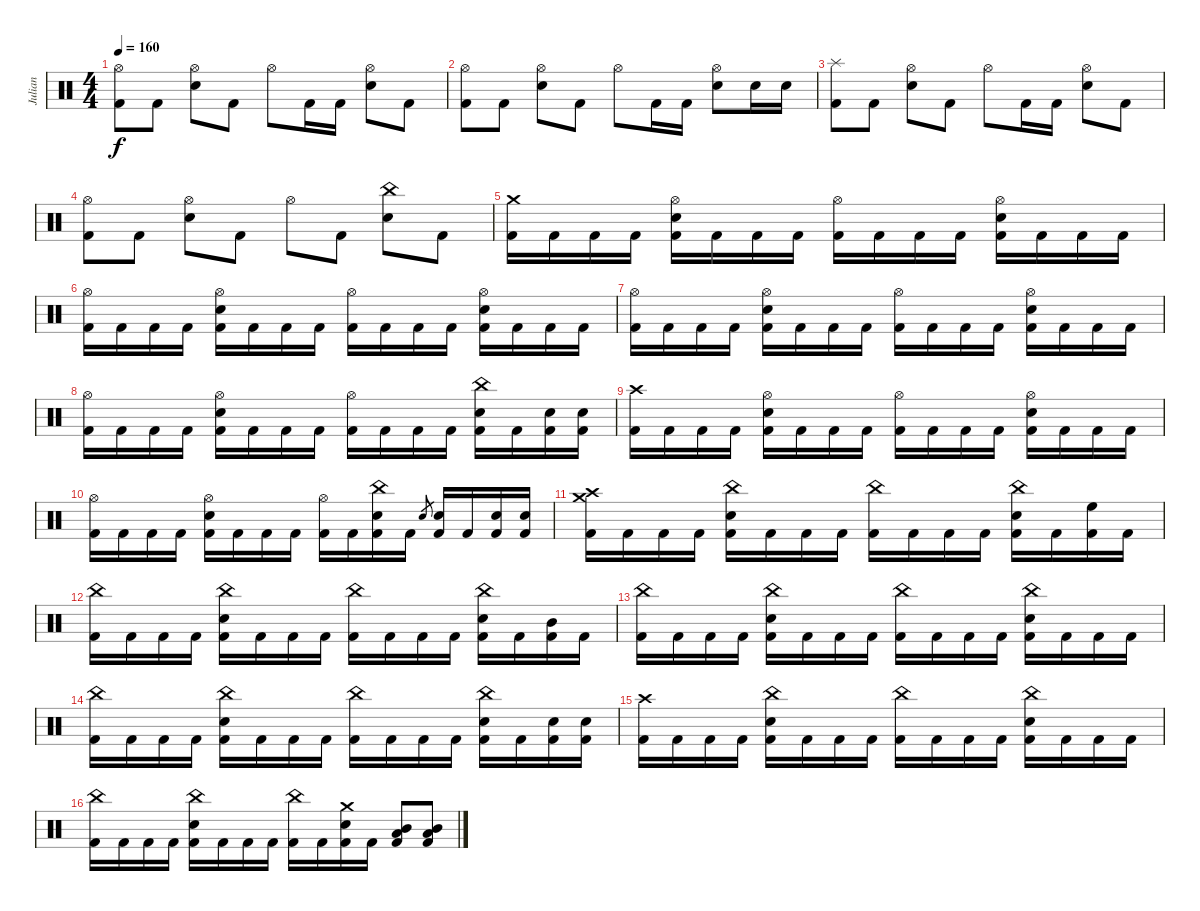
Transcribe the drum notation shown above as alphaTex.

\track ("Julian" "Julian") {instrument percussion}
\staff {score}
\articulation defaults
\ts (4 4)
\tempo 160
\clef neutral
\ks c
("Hi-Hat (open)" "Kick (hit) 2").8{dy f} "Kick (hit) 2".8 ("Hi-Hat (open)" "Electric Snare (hit)").8 "Kick (hit) 2".8 "Hi-Hat (open)".8 "Kick (hit) 2".16 "Kick (hit) 2".16 ("Hi-Hat (open)" "Electric Snare (hit)").8 "Kick (hit) 2".8 |
("Hi-Hat (open)" "Kick (hit) 2").8 "Kick (hit) 2".8 ("Hi-Hat (open)" "Electric Snare (hit)").8 "Kick (hit) 2".8 "Hi-Hat (open)".8 "Kick (hit) 2".16 "Kick (hit) 2".16 ("Hi-Hat (open)" "Electric Snare (hit)").8 "Electric Snare (hit)".16 "Electric Snare (hit)".16 |
("Splash (hit)" "Kick (hit) 2").8 "Kick (hit) 2".8 ("Hi-Hat (open)" "Electric Snare (hit)").8 "Kick (hit) 2".8 "Hi-Hat (open)".8 "Kick (hit) 2".16 "Kick (hit) 2".16 ("Hi-Hat (open)" "Electric Snare (hit)").8 "Kick (hit) 2".8 |
("Hi-Hat (open)" "Kick (hit) 2").8 "Kick (hit) 2".8 ("Hi-Hat (open)" "Electric Snare (hit)").8 "Kick (hit) 2".8 "Hi-Hat (open)".8 "Kick (hit) 2".8 ("China (hit)" "Electric Snare (hit)").8 "Kick (hit) 2".8 |
("Crash medium (hit)" "Kick (hit) 2").16 "Kick (hit) 2".16 "Kick (hit) 2".16 "Kick (hit) 2".16 ("Hi-Hat (open)" "Electric Snare (hit)" "Kick (hit) 2").16 "Kick (hit) 2".16 "Kick (hit) 2".16 "Kick (hit) 2".16 ("Hi-Hat (open)" "Kick (hit) 2").16 "Kick (hit) 2".16 "Kick (hit) 2".16 "Kick (hit) 2".16 ("Hi-Hat (open)" "Electric Snare (hit)" "Kick (hit) 2").16 "Kick (hit) 2".16 "Kick (hit) 2".16 "Kick (hit) 2".16 |
("Hi-Hat (open)" "Kick (hit) 2").16 "Kick (hit) 2".16 "Kick (hit) 2".16 "Kick (hit) 2".16 ("Hi-Hat (open)" "Electric Snare (hit)" "Kick (hit) 2").16 "Kick (hit) 2".16 "Kick (hit) 2".16 "Kick (hit) 2".16 ("Hi-Hat (open)" "Kick (hit) 2").16 "Kick (hit) 2".16 "Kick (hit) 2".16 "Kick (hit) 2".16 ("Hi-Hat (open)" "Electric Snare (hit)" "Kick (hit) 2").16 "Kick (hit) 2".16 "Kick (hit) 2".16 "Kick (hit) 2".16 |
("Hi-Hat (open)" "Kick (hit) 2").16 "Kick (hit) 2".16 "Kick (hit) 2".16 "Kick (hit) 2".16 ("Hi-Hat (open)" "Electric Snare (hit)" "Kick (hit) 2").16 "Kick (hit) 2".16 "Kick (hit) 2".16 "Kick (hit) 2".16 ("Hi-Hat (open)" "Kick (hit) 2").16 "Kick (hit) 2".16 "Kick (hit) 2".16 "Kick (hit) 2".16 ("Hi-Hat (open)" "Electric Snare (hit)" "Kick (hit) 2").16 "Kick (hit) 2".16 "Kick (hit) 2".16 "Kick (hit) 2".16 |
("Hi-Hat (open)" "Kick (hit) 2").16 "Kick (hit) 2".16 "Kick (hit) 2".16 "Kick (hit) 2".16 ("Hi-Hat (open)" "Electric Snare (hit)" "Kick (hit) 2").16 "Kick (hit) 2".16 "Kick (hit) 2".16 "Kick (hit) 2".16 ("Hi-Hat (open)" "Kick (hit) 2").16 "Kick (hit) 2".16 "Kick (hit) 2".16 "Kick (hit) 2".16 ("China (hit)" "Electric Snare (hit)" "Kick (hit) 2").16 "Kick (hit) 2".16 ("Electric Snare (hit)" "Kick (hit) 2").16 ("Electric Snare (hit)" "Kick (hit) 2").16 |
("Crash high (hit)" "Kick (hit) 2").16 "Kick (hit) 2".16 "Kick (hit) 2".16 "Kick (hit) 2".16 ("Hi-Hat (open)" "Electric Snare (hit)" "Kick (hit) 2").16 "Kick (hit) 2".16 "Kick (hit) 2".16 "Kick (hit) 2".16 ("Hi-Hat (open)" "Kick (hit) 2").16 "Kick (hit) 2".16 "Kick (hit) 2".16 "Kick (hit) 2".16 ("Hi-Hat (open)" "Electric Snare (hit)" "Kick (hit) 2").16 "Kick (hit) 2".16 "Kick (hit) 2".16 "Kick (hit) 2".16 |
("Hi-Hat (open)" "Kick (hit) 2").16 "Kick (hit) 2".16 "Kick (hit) 2".16 "Kick (hit) 2".16 ("Hi-Hat (open)" "Electric Snare (hit)" "Kick (hit) 2").16 "Kick (hit) 2".16 "Kick (hit) 2".16 "Kick (hit) 2".16 ("Hi-Hat (open)" "Kick (hit) 2").16 "Kick (hit) 2".16 ("China (hit)" "Electric Snare (hit)" "Kick (hit) 2").16 "Kick (hit) 2".16 "Electric Snare (hit)".8{gr} ("Electric Snare (hit)" "Kick (hit) 2").16 "Kick (hit) 2".16 ("Electric Snare (hit)" "Kick (hit) 2").16 ("Electric Snare (hit)" "Kick (hit) 2").16 |
("Crash high (hit)" "Crash medium (hit)" "Kick (hit) 2").16 "Kick (hit) 2".16 "Kick (hit) 2".16 "Kick (hit) 2".16 ("China (hit)" "Electric Snare (hit)" "Kick (hit) 2").16 "Kick (hit) 2".16 "Kick (hit) 2".16 "Kick (hit) 2".16 ("China (hit)" "Kick (hit) 2").16 "Kick (hit) 2".16 "Kick (hit) 2".16 "Kick (hit) 2".16 ("China (hit)" "Electric Snare (hit)" "Kick (hit) 2").16 "Kick (hit) 2".16 ("High Floor Tom (hit)" "Kick (hit) 2").16 "Kick (hit) 2".16 |
("China (hit)" "Kick (hit) 2").16 "Kick (hit) 2".16 "Kick (hit) 2".16 "Kick (hit) 2".16 ("China (hit)" "Electric Snare (hit)" "Kick (hit) 2").16 "Kick (hit) 2".16 "Kick (hit) 2".16 "Kick (hit) 2".16 ("China (hit)" "Kick (hit) 2").16 "Kick (hit) 2".16 "Kick (hit) 2".16 "Kick (hit) 2".16 ("China (hit)" "Electric Snare (hit)" "Kick (hit) 2").16 "Kick (hit) 2".16 ("Mid Tom (hit)" "Kick (hit) 2").16 "Kick (hit) 2".16 |
("China (hit)" "Kick (hit) 2").16 "Kick (hit) 2".16 "Kick (hit) 2".16 "Kick (hit) 2".16 ("China (hit)" "Electric Snare (hit)" "Kick (hit) 2").16 "Kick (hit) 2".16 "Kick (hit) 2".16 "Kick (hit) 2".16 ("China (hit)" "Kick (hit) 2").16 "Kick (hit) 2".16 "Kick (hit) 2".16 "Kick (hit) 2".16 ("China (hit)" "Electric Snare (hit)" "Kick (hit) 2").16 "Kick (hit) 2".16 "Kick (hit) 2".16 "Kick (hit) 2".16 |
("China (hit)" "Kick (hit) 2").16 "Kick (hit) 2".16 "Kick (hit) 2".16 "Kick (hit) 2".16 ("China (hit)" "Electric Snare (hit)" "Kick (hit) 2").16 "Kick (hit) 2".16 "Kick (hit) 2".16 "Kick (hit) 2".16 ("China (hit)" "Kick (hit) 2").16 "Kick (hit) 2".16 "Kick (hit) 2".16 "Kick (hit) 2".16 ("China (hit)" "Electric Snare (hit)" "Kick (hit) 2").16 "Kick (hit) 2".16 ("Electric Snare (hit)" "Kick (hit) 2").16 ("Electric Snare (hit)" "Kick (hit) 2").16 |
("Crash high (hit)" "Kick (hit) 2").16 "Kick (hit) 2".16 "Kick (hit) 2".16 "Kick (hit) 2".16 ("China (hit)" "Electric Snare (hit)" "Kick (hit) 2").16 "Kick (hit) 2".16 "Kick (hit) 2".16 "Kick (hit) 2".16 ("China (hit)" "Kick (hit) 2").16 "Kick (hit) 2".16 "Kick (hit) 2".16 "Kick (hit) 2".16 ("China (hit)" "Electric Snare (hit)" "Kick (hit) 2").16 "Kick (hit) 2".16 "Kick (hit) 2".16 "Kick (hit) 2".16 |
("China (hit)" "Kick (hit) 2").16 "Kick (hit) 2".16 "Kick (hit) 2".16 "Kick (hit) 2".16 ("China (hit)" "Electric Snare (hit)" "Kick (hit) 2").16 "Kick (hit) 2".16 "Kick (hit) 2".16 "Kick (hit) 2".16 ("China (hit)" "Kick (hit) 2").16 "Kick (hit) 2".16 ("Crash medium (hit)" "Electric Snare (hit)" "Kick (hit) 2").16 "Kick (hit) 2".16 ("Mid Tom (hit)" "Low Tom (hit)" "Kick (hit) 2").8 ("Mid Tom (hit)" "Low Tom (hit)" "Kick (hit) 2").8
